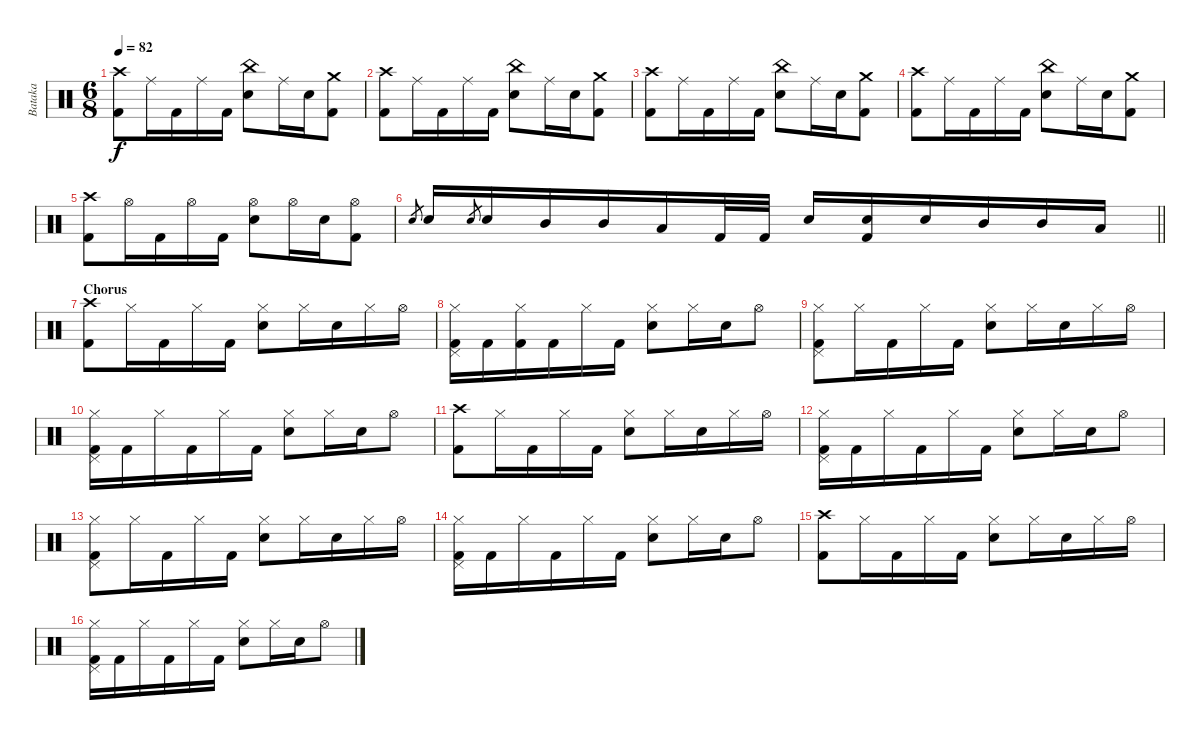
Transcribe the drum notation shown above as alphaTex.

\track ("Bataka" "Bataka") {instrument percussion}
\staff {score}
\articulation defaults
\ts (6 8)
\tempo 82
\clef neutral
\ks c
("Crash high (hit)" "Kick (hit) 2").8{dy f} "Ride (middle)".16 "Kick (hit) 2".16 "Ride (middle)".16 "Kick (hit) 2".16 ("China (hit)" "Snare (hit) 2").8 "Ride (middle)".16 "Snare (hit) 2".16 ("Crash medium (hit)" "Kick (hit) 2").8 |
("Crash high (hit)" "Kick (hit) 2").8 "Ride (middle)".16 "Kick (hit) 2".16 "Ride (middle)".16 "Kick (hit) 2".16 ("China (hit)" "Snare (hit) 2").8 "Ride (middle)".16 "Snare (hit) 2".16 ("Crash medium (hit)" "Kick (hit) 2").8 |
("Crash high (hit)" "Kick (hit) 2").8 "Ride (middle)".16 "Kick (hit) 2".16 "Ride (middle)".16 "Kick (hit) 2".16 ("China (hit)" "Snare (hit) 2").8 "Ride (middle)".16 "Snare (hit) 2".16 ("Crash medium (hit)" "Kick (hit) 2").8 |
("Crash high (hit)" "Kick (hit) 2").8 "Ride (middle)".16 "Kick (hit) 2".16 "Ride (middle)".16 "Kick (hit) 2".16 ("China (hit)" "Snare (hit) 2").8 "Ride (middle)".16 "Snare (hit) 2".16 ("Crash medium (hit)" "Kick (hit) 2").8 |
("Crash high (hit)" "Kick (hit) 2").8 "Hi-Hat (open)".16 "Kick (hit) 2".16 "Hi-Hat (open)".16 "Kick (hit) 2".16 ("Hi-Hat (open)" "Snare (hit) 2").8 "Hi-Hat (open)".16 "Snare (hit) 2".16 ("Hi-Hat (open)" "Kick (hit) 2").8 |
\barLineRight lightlight "Electric Snare (hit)".8{gr} "Snare (hit) 2".16 "Electric Snare (hit)".8{gr} "Snare (hit) 2".16 "Mid Tom (hit)".16 "Mid Tom (hit)".16 "Low Tom (hit)".16 "Kick (hit) 2".32 "Kick (hit) 2".32 "Snare (hit) 2".16
("Snare (hit) 2" "Kick (hit) 2").16 "Snare (hit) 2".16 "Mid Tom (hit)".16 "Mid Tom (hit)".16 "Low Tom (hit)".16 |
\section ("" "Chorus")
("Crash high (hit)" "Kick (hit) 2").8 "Hi-Hat (closed)".16 "Kick (hit) 2".16 "Hi-Hat (closed)".16 "Kick (hit) 2".16 ("Hi-Hat (closed)" "Snare (hit) 2").8 "Hi-Hat (closed)".16 "Snare (hit) 2".16 "Hi-Hat (closed)".16 "Hi-Hat (open)".16 |
("Hi-Hat (closed)" "Pedal Hi-Hat (hit)" "Kick (hit) 2").16 "Kick (hit) 2".16 ("Hi-Hat (closed)" "Kick (hit) 2").16 "Kick (hit) 2".16 "Hi-Hat (closed)".16 "Kick (hit) 2".16 ("Hi-Hat (closed)" "Snare (hit) 2").8 "Hi-Hat (closed)".16 "Snare (hit) 2".16 "Hi-Hat (open)".8 |
("Hi-Hat (closed)" "Pedal Hi-Hat (hit)" "Kick (hit) 2").8 "Hi-Hat (closed)".16 "Kick (hit) 2".16 "Hi-Hat (closed)".16 "Kick (hit) 2".16 ("Hi-Hat (closed)" "Snare (hit) 2").8 "Hi-Hat (closed)".16 "Snare (hit) 2".16 "Hi-Hat (closed)".16 "Hi-Hat (open)".16 |
("Hi-Hat (closed)" "Pedal Hi-Hat (hit)" "Kick (hit) 2").16 "Kick (hit) 2".16 "Hi-Hat (closed)".16 "Kick (hit) 2".16 "Hi-Hat (closed)".16 "Kick (hit) 2".16 ("Hi-Hat (closed)" "Snare (hit) 2").8 "Hi-Hat (closed)".16 "Snare (hit) 2".16 "Hi-Hat (open)".8 |
("Crash high (hit)" "Kick (hit) 2").8 "Hi-Hat (closed)".16 "Kick (hit) 2".16 "Hi-Hat (closed)".16 "Kick (hit) 2".16 ("Hi-Hat (closed)" "Snare (hit) 2").8 "Hi-Hat (closed)".16 "Snare (hit) 2".16 "Hi-Hat (closed)".16 "Hi-Hat (open)".16 |
("Hi-Hat (closed)" "Pedal Hi-Hat (hit)" "Kick (hit) 2").16 "Kick (hit) 2".16 "Hi-Hat (closed)".16 "Kick (hit) 2".16 "Hi-Hat (closed)".16 "Kick (hit) 2".16 ("Hi-Hat (closed)" "Snare (hit) 2").8 "Hi-Hat (closed)".16 "Snare (hit) 2".16 "Hi-Hat (open)".8 |
("Hi-Hat (closed)" "Pedal Hi-Hat (hit)" "Kick (hit) 2").8 "Hi-Hat (closed)".16 "Kick (hit) 2".16 "Hi-Hat (closed)".16 "Kick (hit) 2".16 ("Hi-Hat (closed)" "Snare (hit) 2").8 "Hi-Hat (closed)".16 "Snare (hit) 2".16 "Hi-Hat (closed)".16 "Hi-Hat (open)".16 |
("Hi-Hat (closed)" "Pedal Hi-Hat (hit)" "Kick (hit) 2").16 "Kick (hit) 2".16 "Hi-Hat (closed)".16 "Kick (hit) 2".16 "Hi-Hat (closed)".16 "Kick (hit) 2".16 ("Hi-Hat (closed)" "Snare (hit) 2").8 "Hi-Hat (closed)".16 "Snare (hit) 2".16 "Hi-Hat (open)".8 |
("Crash high (hit)" "Kick (hit) 2").8 "Hi-Hat (closed)".16 "Kick (hit) 2".16 "Hi-Hat (closed)".16 "Kick (hit) 2".16 ("Hi-Hat (closed)" "Snare (hit) 2").8 "Hi-Hat (closed)".16 "Snare (hit) 2".16 "Hi-Hat (closed)".16 "Hi-Hat (open)".16 |
("Hi-Hat (closed)" "Pedal Hi-Hat (hit)" "Kick (hit) 2").16 "Kick (hit) 2".16 "Hi-Hat (closed)".16 "Kick (hit) 2".16 "Hi-Hat (closed)".16 "Kick (hit) 2".16 ("Hi-Hat (closed)" "Snare (hit) 2").8 "Hi-Hat (closed)".16 "Snare (hit) 2".16 "Hi-Hat (open)".8
